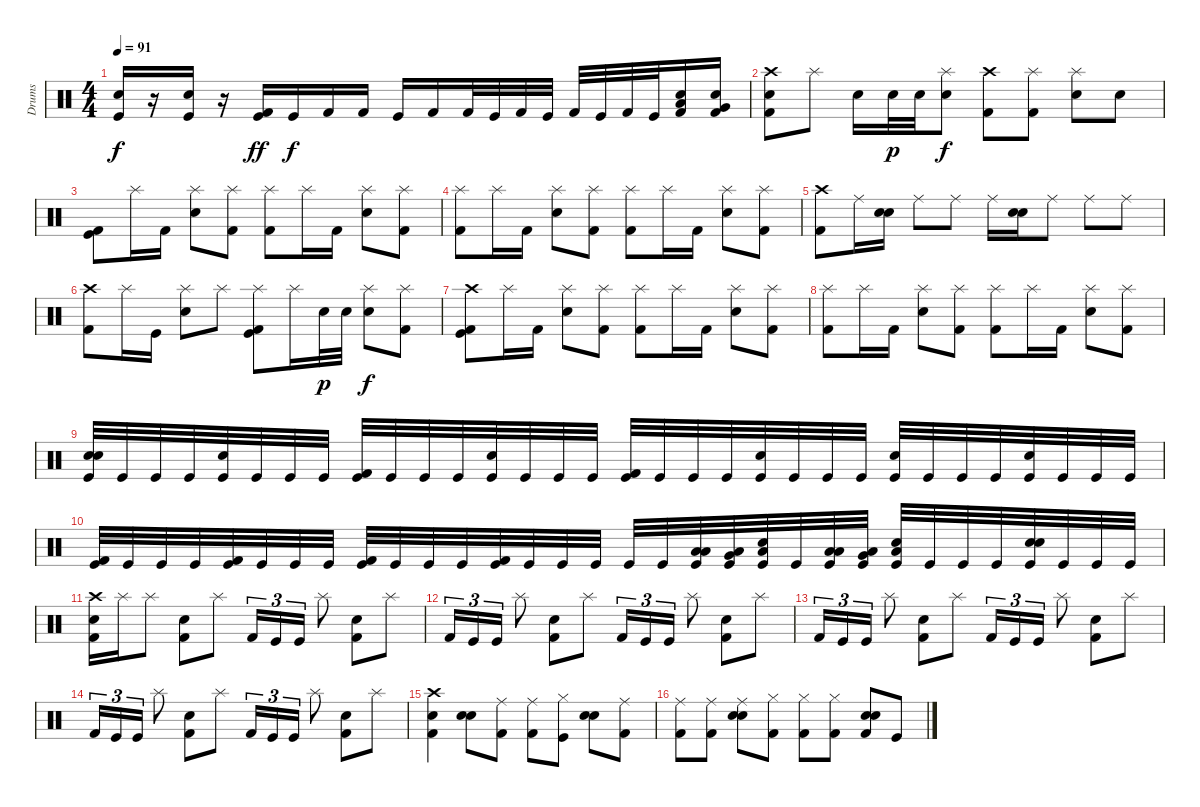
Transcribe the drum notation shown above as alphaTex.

\track ("Drums" "Drums") {instrument percussion}
\staff {score}
\articulation defaults
\ts (4 4)
\tempo 91
\clef neutral
\ks c
("Snare (hit) 2" "Kick (hit)").16{dy f} r.16 ("Snare (hit) 2" "Kick (hit)").16 r.16 ("Kick (hit) 2" "Kick (hit)").16{dy ff} "Kick (hit)".16{dy f} "Kick (hit) 2".16 "Kick (hit) 2".16 "Kick (hit)".16 "Kick (hit) 2".16 "Kick (hit) 2".32 "Kick (hit)".32 "Kick (hit) 2".32 "Kick (hit)".32 "Kick (hit) 2".32 "Kick (hit)".32 "Kick (hit) 2".32 "Kick (hit)".32 ("Kick (hit) 2" "Snare (hit) 2" "Low Floor Tom (hit)").16 ("Kick (hit) 2" "Snare (hit) 2" "Very Low Tom (hit)").16 |
("Kick (hit) 2" "Snare (hit) 2" "Crash high (hit)").8 "Splash (hit)".8 "Snare (hit) 2".16 "Snare (hit) 2".32{dy p} "Snare (hit) 2".32 ("Splash (hit)" "Snare (hit) 2").8{dy f} ("Kick (hit) 2" "Crash high (hit)").8 ("Splash (hit)" "Kick (hit) 2").8 ("Splash (hit)" "Snare (hit) 2").8 "Snare (hit) 2".8 |
("Kick (hit) 2" "Kick (hit)").8 "Splash (hit)".16 "Kick (hit) 2".16 ("Splash (hit)" "Snare (hit) 2").8 ("Splash (hit)" "Kick (hit) 2").8 ("Splash (hit)" "Kick (hit) 2").8 "Splash (hit)".16 "Kick (hit) 2".16 ("Splash (hit)" "Snare (hit) 2").8 ("Splash (hit)" "Kick (hit) 2").8 |
("Splash (hit)" "Kick (hit) 2").8 "Splash (hit)".16 "Kick (hit) 2".16 ("Splash (hit)" "Snare (hit) 2").8 ("Splash (hit)" "Kick (hit) 2").8 ("Splash (hit)" "Kick (hit) 2").8 "Splash (hit)".16 "Kick (hit) 2".16 ("Splash (hit)" "Snare (hit) 2").8 ("Splash (hit)" "Kick (hit) 2").8 |
("Kick (hit) 2" "Crash high (hit)").8 "Ride (middle)".16 ("Electric Snare (hit)" "Snare (hit) 2").16 "Ride (middle)".8 "Ride (middle)".8 "Ride (middle)".16 ("Electric Snare (hit)" "Snare (hit) 2").16 "Ride (middle)".8 "Ride (middle)".8 "Ride (middle)".8 |
("Kick (hit) 2" "Crash high (hit)").8 "Splash (hit)".16 "Kick (hit)".16 ("Splash (hit)" "Snare (hit) 2").8 "Splash (hit)".8 ("Splash (hit)" "Kick (hit) 2" "Kick (hit)").8 "Splash (hit)".16 "Snare (hit) 2".32{dy p} "Snare (hit) 2".32 ("Splash (hit)" "Snare (hit) 2").8{dy f} ("Splash (hit)" "Kick (hit) 2").8 |
("Kick (hit) 2" "Kick (hit)" "Crash high (hit)").8 "Splash (hit)".16 "Kick (hit) 2".16 ("Splash (hit)" "Snare (hit) 2").8 ("Splash (hit)" "Kick (hit) 2").8 ("Splash (hit)" "Kick (hit) 2").8 "Splash (hit)".16 "Kick (hit) 2".16 ("Splash (hit)" "Snare (hit) 2").8 ("Splash (hit)" "Kick (hit) 2").8 |
("Splash (hit)" "Kick (hit) 2").8 "Splash (hit)".16 "Kick (hit) 2".16 ("Splash (hit)" "Snare (hit) 2").8 ("Splash (hit)" "Kick (hit) 2").8 ("Splash (hit)" "Kick (hit) 2").8 "Splash (hit)".16 "Kick (hit) 2".16 ("Splash (hit)" "Snare (hit) 2").8 ("Splash (hit)" "Kick (hit) 2").8 |
("Kick (hit)" "Snare (hit) 2" "Electric Snare (hit)").32 "Kick (hit)".32 "Kick (hit)".32 "Kick (hit)".32 ("Kick (hit)" "Snare (hit) 2").32 "Kick (hit)".32 "Kick (hit)".32 "Kick (hit)".32 ("Kick (hit)" "Kick (hit) 2").32 "Kick (hit)".32 "Kick (hit)".32 "Kick (hit)".32 ("Kick (hit)" "Snare (hit) 2").32 "Kick (hit)".32 "Kick (hit)".32 "Kick (hit)".32 ("Kick (hit)" "Kick (hit) 2").32 "Kick (hit)".32 "Kick (hit)".32 "Kick (hit)".32 ("Kick (hit)" "Snare (hit) 2").32 "Kick (hit)".32 "Kick (hit)".32 "Kick (hit)".32 ("Kick (hit)" "Snare (hit) 2").32 "Kick (hit)".32 "Kick (hit)".32 "Kick (hit)".32 ("Kick (hit)" "Snare (hit) 2").32 "Kick (hit)".32 "Kick (hit)".32 "Kick (hit)".32 |
("Kick (hit)" "Kick (hit) 2").32 "Kick (hit)".32 "Kick (hit)".32 "Kick (hit)".32 ("Kick (hit)" "Kick (hit) 2").32 "Kick (hit)".32 "Kick (hit)".32 "Kick (hit)".32 ("Kick (hit)" "Kick (hit) 2").32 "Kick (hit)".32 "Kick (hit)".32 "Kick (hit)".32 ("Kick (hit)" "Kick (hit) 2").32 "Kick (hit)".32 "Kick (hit)".32 "Kick (hit)".32 "Kick (hit)".32 "Kick (hit)".32 ("Kick (hit)" "Low Floor Tom (hit)" "Low Tom (hit)").32 ("Kick (hit)" "Very Low Tom (hit)" "Low Tom (hit)").32 ("Kick (hit)" "Electric Snare (hit)" "Low Tom (hit)").32 "Kick (hit)".32 ("Kick (hit)" "Low Floor Tom (hit)" "Low Tom (hit)").32 ("Kick (hit)" "Very Low Tom (hit)" "Low Tom (hit)").32 ("Kick (hit)" "Electric Snare (hit)" "Low Tom (hit)").32 "Kick (hit)".32 "Kick (hit)".32 "Kick (hit)".32 ("Kick (hit)" "Snare (hit) 2" "Electric Snare (hit)").32 "Kick (hit)".32 "Kick (hit)".32 "Kick (hit)".32 |
("Kick (hit) 2" "Electric Snare (hit)" "Crash high (hit)").16 "Splash (hit)".16 "Splash (hit)".8 ("Kick (hit) 2" "Electric Snare (hit)").8 "Splash (hit)".8 "Kick (hit) 2".16{tu (3 2)} "Kick (hit)".16{tu (3 2)} "Kick (hit)".16{tu (3 2)} "Splash (hit)".8 ("Kick (hit) 2" "Electric Snare (hit)").8 "Splash (hit)".8 |
"Kick (hit) 2".16{tu (3 2)} "Kick (hit)".16{tu (3 2)} "Kick (hit)".16{tu (3 2)} "Splash (hit)".8 ("Kick (hit) 2" "Electric Snare (hit)").8 "Splash (hit)".8 "Kick (hit) 2".16{tu (3 2)} "Kick (hit)".16{tu (3 2)} "Kick (hit)".16{tu (3 2)} "Splash (hit)".8 ("Kick (hit) 2" "Electric Snare (hit)").8 "Splash (hit)".8 |
"Kick (hit) 2".16{tu (3 2)} "Kick (hit)".16{tu (3 2)} "Kick (hit)".16{tu (3 2)} "Splash (hit)".8 ("Kick (hit) 2" "Electric Snare (hit)").8 "Splash (hit)".8 "Kick (hit) 2".16{tu (3 2)} "Kick (hit)".16{tu (3 2)} "Kick (hit)".16{tu (3 2)} "Splash (hit)".8 ("Kick (hit) 2" "Electric Snare (hit)").8 "Splash (hit)".8 |
"Kick (hit) 2".16{tu (3 2)} "Kick (hit)".16{tu (3 2)} "Kick (hit)".16{tu (3 2)} "Splash (hit)".8 ("Kick (hit) 2" "Electric Snare (hit)").8 "Splash (hit)".8 "Kick (hit) 2".16{tu (3 2)} "Kick (hit)".16{tu (3 2)} "Kick (hit)".16{tu (3 2)} "Splash (hit)".8 ("Kick (hit) 2" "Electric Snare (hit)").8 "Splash (hit)".8 |
("Kick (hit) 2" "Snare (hit) 2" "Crash high (hit)").4 ("Snare (hit) 2" "Electric Snare (hit)").8 ("Ride (middle)" "Kick (hit) 2").8 ("Ride (middle)" "Kick (hit) 2").8 ("Hi-Hat (closed)" "Kick (hit)").8 ("Snare (hit) 2" "Electric Snare (hit)").8 ("Ride (middle)" "Kick (hit) 2").8 |
("Ride (middle)" "Kick (hit) 2").8 ("Ride (middle)" "Kick (hit) 2").8 ("Ride (middle)" "Snare (hit) 2" "Electric Snare (hit)").8 ("Hi-Hat (closed)" "Kick (hit) 2").8 ("Hi-Hat (closed)" "Kick (hit) 2").8 ("Hi-Hat (closed)" "Kick (hit) 2").8 ("Electric Snare (hit)" "Kick (hit) 2" "Snare (hit) 2").8 "Kick (hit)".8
